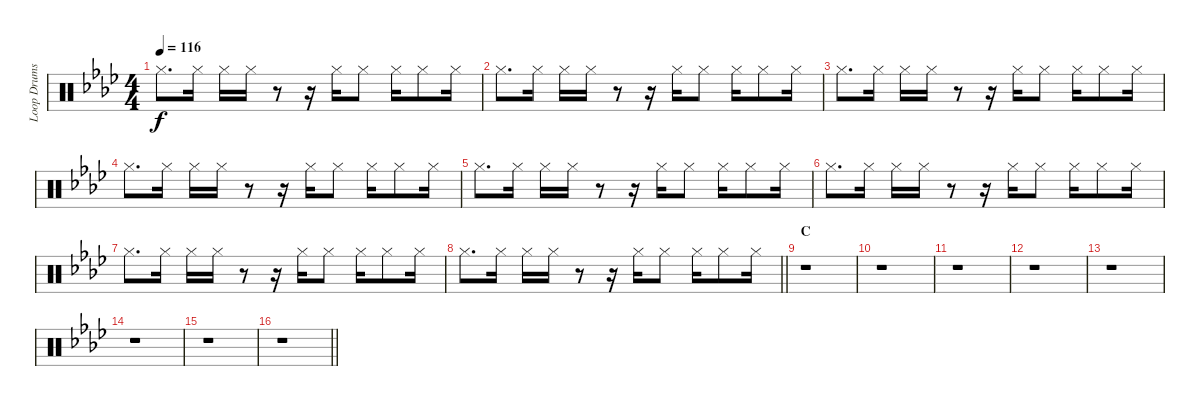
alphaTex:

\track ("Loop Drums II" "Loop Drums") {instrument percussion}
\staff {score}
\articulation defaults
\ts (4 4)
\tempo 116
\clef neutral
\ks ab "Hi-Hat (closed)".8{d dy f} "Hi-Hat (closed)".16 "Hi-Hat (closed)".16 "Hi-Hat (closed)".16
r.8 r.16 "Hi-Hat (closed)".16 "Hi-Hat (closed)".8 "Hi-Hat (closed)".16 "Hi-Hat (closed)".8 "Hi-Hat (closed)".16 |
"Hi-Hat (closed)".8{d} "Hi-Hat (closed)".16 "Hi-Hat (closed)".16 "Hi-Hat (closed)".16 r.8 r.16 "Hi-Hat (closed)".16 "Hi-Hat (closed)".8 "Hi-Hat (closed)".16 "Hi-Hat (closed)".8 "Hi-Hat (closed)".16 |
"Hi-Hat (closed)".8{d} "Hi-Hat (closed)".16 "Hi-Hat (closed)".16 "Hi-Hat (closed)".16 r.8 r.16 "Hi-Hat (closed)".16 "Hi-Hat (closed)".8 "Hi-Hat (closed)".16 "Hi-Hat (closed)".8 "Hi-Hat (closed)".16 |
"Hi-Hat (closed)".8{d} "Hi-Hat (closed)".16 "Hi-Hat (closed)".16 "Hi-Hat (closed)".16 r.8 r.16 "Hi-Hat (closed)".16 "Hi-Hat (closed)".8 "Hi-Hat (closed)".16 "Hi-Hat (closed)".8 "Hi-Hat (closed)".16 |
"Hi-Hat (closed)".8{d} "Hi-Hat (closed)".16 "Hi-Hat (closed)".16 "Hi-Hat (closed)".16 r.8 r.16 "Hi-Hat (closed)".16 "Hi-Hat (closed)".8 "Hi-Hat (closed)".16 "Hi-Hat (closed)".8 "Hi-Hat (closed)".16 |
"Hi-Hat (closed)".8{d} "Hi-Hat (closed)".16 "Hi-Hat (closed)".16 "Hi-Hat (closed)".16 r.8 r.16 "Hi-Hat (closed)".16 "Hi-Hat (closed)".8 "Hi-Hat (closed)".16 "Hi-Hat (closed)".8 "Hi-Hat (closed)".16 |
"Hi-Hat (closed)".8{d} "Hi-Hat (closed)".16 "Hi-Hat (closed)".16 "Hi-Hat (closed)".16 r.8 r.16 "Hi-Hat (closed)".16 "Hi-Hat (closed)".8 "Hi-Hat (closed)".16 "Hi-Hat (closed)".8 "Hi-Hat (closed)".16 |
\barLineRight lightlight "Hi-Hat (closed)".8{d} "Hi-Hat (closed)".16 "Hi-Hat (closed)".16 "Hi-Hat (closed)".16
r.8 r.16 "Hi-Hat (closed)".16 "Hi-Hat (closed)".8 "Hi-Hat (closed)".16 "Hi-Hat (closed)".8 "Hi-Hat (closed)".16 |
\section ("" "C")
r.1 |
r.1 |
r.1 |
r.1 |
r.1 |
r.1 |
r.1 |
\barLineRight lightlight
r.1
